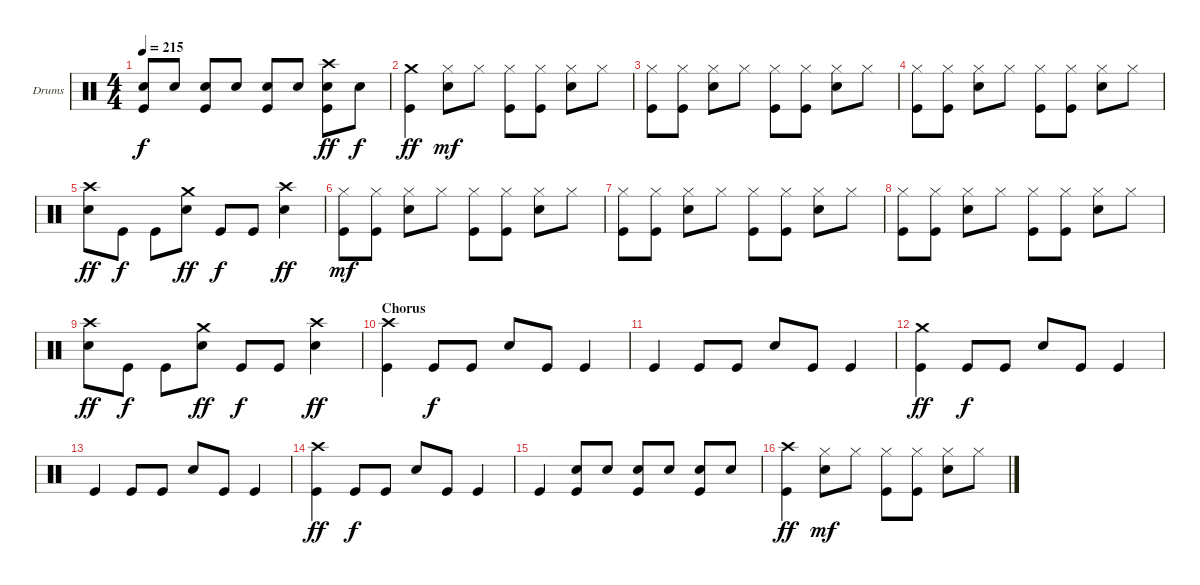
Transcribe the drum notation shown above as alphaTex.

\bracketExtendMode groupsimilarinstruments
\firstSystemTrackNameOrientation horizontal
\otherSystemsTrackNameOrientation horizontal
\track ("Drumkit" "Drums") {instrument percussion}
\staff {score}
\articulation defaults
\ts (4 4)
\tempo 215
\clef neutral
\ks c
("Snare (hit) 2" "Kick (hit)").8{dy f} "Snare (hit) 2".8 ("Snare (hit) 2" "Kick (hit)").8 "Snare (hit) 2".8 ("Snare (hit) 2" "Kick (hit)").8 "Snare (hit) 2".8 ("Crash high (hit)" "Snare (hit) 2" "Kick (hit)").8{dy ff} "Snare (hit) 2".8{dy f} |
("Crash medium (hit)" "Kick (hit)").4{dy ff} ("Hi-Hat (closed)" "Snare (hit) 2").8{dy mf} "Hi-Hat (closed)".8 ("Hi-Hat (closed)" "Kick (hit)").8 ("Hi-Hat (closed)" "Kick (hit)").8 ("Hi-Hat (closed)" "Snare (hit) 2").8 "Hi-Hat (closed)".8 |
("Hi-Hat (closed)" "Kick (hit)").8 ("Hi-Hat (closed)" "Kick (hit)").8 ("Hi-Hat (closed)" "Snare (hit) 2").8 "Hi-Hat (closed)".8 ("Hi-Hat (closed)" "Kick (hit)").8 ("Hi-Hat (closed)" "Kick (hit)").8 ("Hi-Hat (closed)" "Snare (hit) 2").8 "Hi-Hat (closed)".8 |
("Hi-Hat (closed)" "Kick (hit)").8 ("Hi-Hat (closed)" "Kick (hit)").8 ("Hi-Hat (closed)" "Snare (hit) 2").8 "Hi-Hat (closed)".8 ("Hi-Hat (closed)" "Kick (hit)").8 ("Hi-Hat (closed)" "Kick (hit)").8 ("Hi-Hat (closed)" "Snare (hit) 2").8 "Hi-Hat (closed)".8 |
("Crash high (hit)" "Snare (hit) 2").8{dy ff} "Kick (hit)".8{dy f} "Kick (hit)".8 ("Crash medium (hit)" "Snare (hit) 2").8{dy ff} "Kick (hit)".8{dy f} "Kick (hit)".8 ("Crash high (hit)" "Snare (hit) 2").4{dy ff} |
("Hi-Hat (closed)" "Kick (hit)").8{dy mf} ("Hi-Hat (closed)" "Kick (hit)").8 ("Hi-Hat (closed)" "Snare (hit) 2").8 "Hi-Hat (closed)".8 ("Hi-Hat (closed)" "Kick (hit)").8 ("Hi-Hat (closed)" "Kick (hit)").8 ("Hi-Hat (closed)" "Snare (hit) 2").8 "Hi-Hat (closed)".8 |
("Hi-Hat (closed)" "Kick (hit)").8 ("Hi-Hat (closed)" "Kick (hit)").8 ("Hi-Hat (closed)" "Snare (hit) 2").8 "Hi-Hat (closed)".8 ("Hi-Hat (closed)" "Kick (hit)").8 ("Hi-Hat (closed)" "Kick (hit)").8 ("Hi-Hat (closed)" "Snare (hit) 2").8 "Hi-Hat (closed)".8 |
("Hi-Hat (closed)" "Kick (hit)").8 ("Hi-Hat (closed)" "Kick (hit)").8 ("Hi-Hat (closed)" "Snare (hit) 2").8 "Hi-Hat (closed)".8 ("Hi-Hat (closed)" "Kick (hit)").8 ("Hi-Hat (closed)" "Kick (hit)").8 ("Hi-Hat (closed)" "Snare (hit) 2").8 "Hi-Hat (closed)".8 |
("Crash high (hit)" "Snare (hit) 2").8{dy ff} "Kick (hit)".8{dy f} "Kick (hit)".8 ("Crash medium (hit)" "Snare (hit) 2").8{dy ff} "Kick (hit)".8{dy f} "Kick (hit)".8 ("Crash high (hit)" "Snare (hit) 2").4{dy ff} |
\section ("" "Chorus")
("Crash high (hit)" "Kick (hit)").4 "Kick (hit)".8{dy f} "Kick (hit)".8 "Snare (hit) 2".8 "Kick (hit)".8 "Kick (hit)".4 |
"Kick (hit)".4 "Kick (hit)".8 "Kick (hit)".8 "Snare (hit) 2".8 "Kick (hit)".8 "Kick (hit)".4 |
("Crash medium (hit)" "Kick (hit)").4{dy ff} "Kick (hit)".8{dy f} "Kick (hit)".8 "Snare (hit) 2".8 "Kick (hit)".8 "Kick (hit)".4 |
"Kick (hit)".4 "Kick (hit)".8 "Kick (hit)".8 "Snare (hit) 2".8 "Kick (hit)".8 "Kick (hit)".4 |
("Crash high (hit)" "Kick (hit)").4{dy ff} "Kick (hit)".8{dy f} "Kick (hit)".8 "Snare (hit) 2".8 "Kick (hit)".8 "Kick (hit)".4 |
"Kick (hit)".4 ("Snare (hit) 2" "Kick (hit)").8 "Snare (hit) 2".8 ("Snare (hit) 2" "Kick (hit)").8 "Snare (hit) 2".8 ("Snare (hit) 2" "Kick (hit)").8 "Snare (hit) 2".8 |
("Crash high (hit)" "Kick (hit)").4{dy ff} ("Hi-Hat (closed)" "Snare (hit) 2").8{dy mf} "Hi-Hat (closed)".8 ("Hi-Hat (closed)" "Kick (hit)").8 ("Hi-Hat (closed)" "Kick (hit)").8 ("Hi-Hat (closed)" "Snare (hit) 2").8 "Hi-Hat (closed)".8
